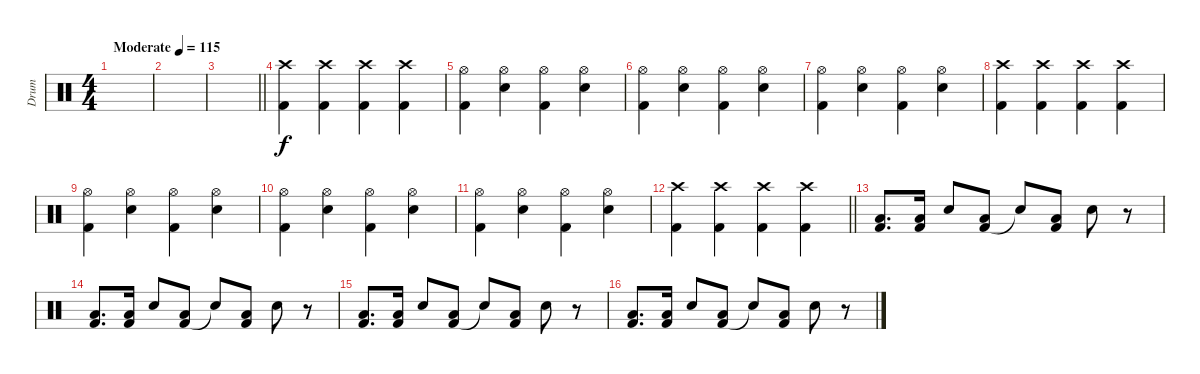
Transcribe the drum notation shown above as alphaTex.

\track ("Drum" "Drum") {instrument percussion}
\staff {score}
\articulation defaults
\ts (4 4)
\section ("" "")
\tempo (115 "Moderate")
\clef neutral
\ks c
|
|
\barLineRight lightlight
|
\section ("" "")
("Kick (hit) 2" "Crash high (hit)").4 ("Kick (hit) 2" "Crash high (hit)").4 ("Kick (hit) 2" "Crash high (hit)").4 ("Kick (hit) 2" "Crash high (hit)").4 |
("Kick (hit) 2" "Hi-Hat (open)").4 ("Snare (hit) 2" "Hi-Hat (open)").4 ("Kick (hit) 2" "Hi-Hat (open)").4 ("Snare (hit) 2" "Hi-Hat (open)").4 |
("Kick (hit) 2" "Hi-Hat (open)").4 ("Snare (hit) 2" "Hi-Hat (open)").4 ("Kick (hit) 2" "Hi-Hat (open)").4 ("Snare (hit) 2" "Hi-Hat (open)").4 |
("Kick (hit) 2" "Hi-Hat (open)").4 ("Snare (hit) 2" "Hi-Hat (open)").4 ("Kick (hit) 2" "Hi-Hat (open)").4 ("Snare (hit) 2" "Hi-Hat (open)").4 |
("Kick (hit) 2" "Crash high (hit)").4 ("Kick (hit) 2" "Crash high (hit)").4 ("Kick (hit) 2" "Crash high (hit)").4 ("Kick (hit) 2" "Crash high (hit)").4 |
("Kick (hit) 2" "Hi-Hat (open)").4 ("Snare (hit) 2" "Hi-Hat (open)").4 ("Kick (hit) 2" "Hi-Hat (open)").4 ("Snare (hit) 2" "Hi-Hat (open)").4 |
("Kick (hit) 2" "Hi-Hat (open)").4 ("Snare (hit) 2" "Hi-Hat (open)").4 ("Kick (hit) 2" "Hi-Hat (open)").4 ("Snare (hit) 2" "Hi-Hat (open)").4 |
("Kick (hit) 2" "Hi-Hat (open)").4 ("Snare (hit) 2" "Hi-Hat (open)").4 ("Kick (hit) 2" "Hi-Hat (open)").4 ("Snare (hit) 2" "Hi-Hat (open)").4 |
\barLineRight lightlight
("Kick (hit) 2" "Crash high (hit)").4 ("Kick (hit) 2" "Crash high (hit)").4 ("Kick (hit) 2" "Crash high (hit)").4 ("Kick (hit) 2" "Crash high (hit)").4 |
\section ("" "")
("Kick (hit) 2" "Low Floor Tom (hit)").8{d} ("Kick (hit) 2" "Low Floor Tom (hit)").16 "Snare (hit) 2".8 ("Kick (hit) 2" "Low Floor Tom (hit)").8 "Snare (hit)"{t}.8 ("Kick (hit) 2" "Low Floor Tom (hit)").8 "Snare (hit) 2".8 r.8 |
("Kick (hit) 2" "Low Floor Tom (hit)").8{d} ("Kick (hit) 2" "Low Floor Tom (hit)").16 "Snare (hit) 2".8 ("Kick (hit) 2" "Low Floor Tom (hit)").8 "Snare (hit)"{t}.8 ("Kick (hit) 2" "Low Floor Tom (hit)").8 "Snare (hit) 2".8 r.8 |
("Kick (hit) 2" "Low Floor Tom (hit)").8{d} ("Kick (hit) 2" "Low Floor Tom (hit)").16 "Snare (hit) 2".8 ("Kick (hit) 2" "Low Floor Tom (hit)").8 "Snare (hit)"{t}.8 ("Kick (hit) 2" "Low Floor Tom (hit)").8 "Snare (hit) 2".8 r.8 |
("Kick (hit) 2" "Low Floor Tom (hit)").8{d} ("Kick (hit) 2" "Low Floor Tom (hit)").16 "Snare (hit) 2".8 ("Kick (hit) 2" "Low Floor Tom (hit)").8 "Snare (hit)"{t}.8 ("Kick (hit) 2" "Low Floor Tom (hit)").8 "Snare (hit) 2".8 r.8
